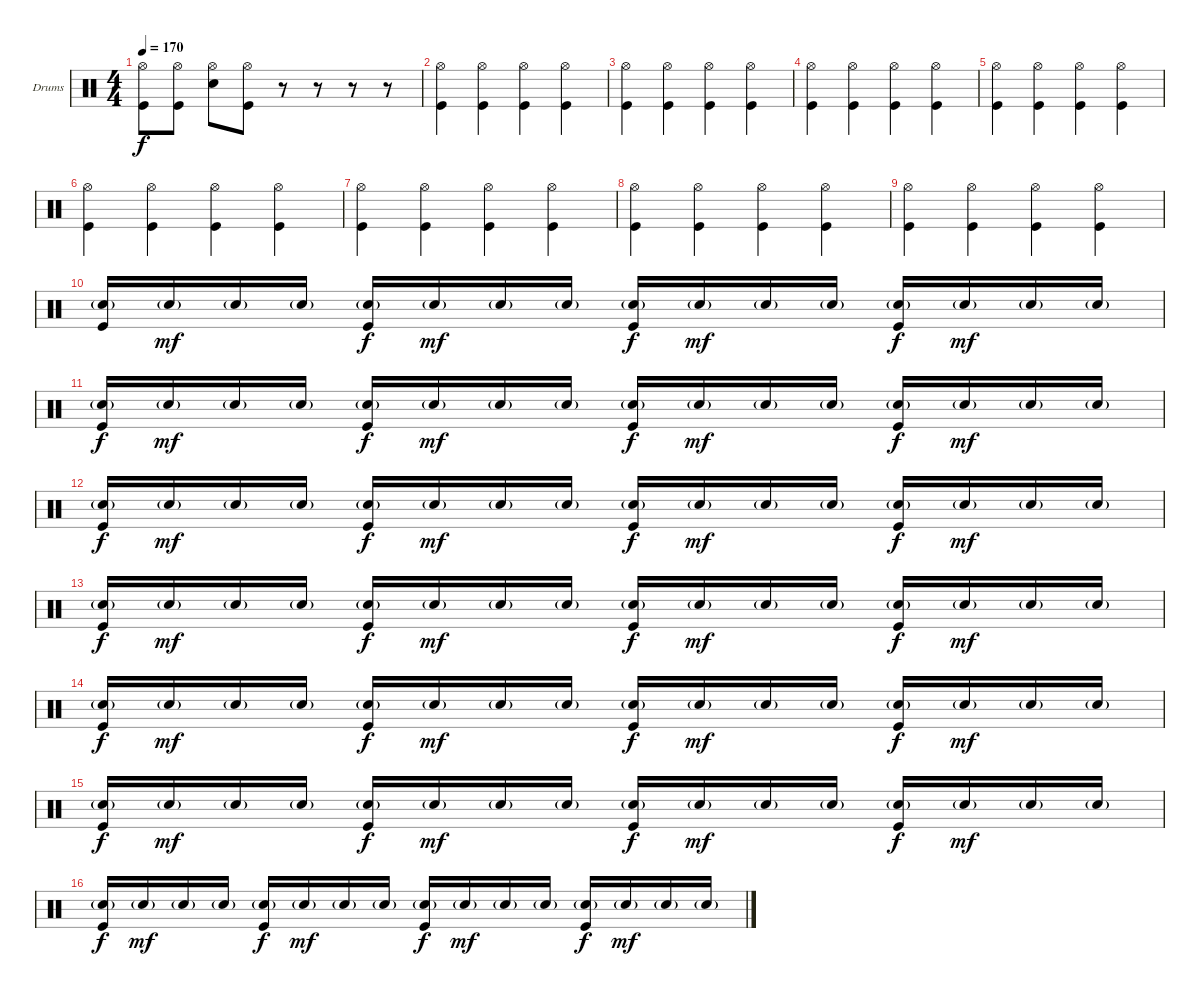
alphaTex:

\defaultSystemsLayout 4
\bracketExtendMode groupsimilarinstruments
\firstSystemTrackNameOrientation horizontal
\otherSystemsTrackNameOrientation horizontal
\track ("Drumkit" "Drums") {instrument percussion}
\staff {score}
\articulation defaults
\ts (4 4)
\tempo 170
\clef neutral
\scale
0.333333
\ks c
("Hi-Hat (open)" "Kick (hit)").8{dy f} ("Hi-Hat (open)" "Kick (hit)").8 ("Hi-Hat (open)" "Snare (hit) 2").8 ("Hi-Hat (open)" "Kick (hit)").8 r.8 r.8 r.8 r.8 |
\scale
0.333333 ("Hi-Hat (open)" "Kick (hit)").4 ("Hi-Hat (open)" "Kick (hit)").4 ("Hi-Hat (open)" "Kick (hit)").4 ("Hi-Hat (open)" "Kick (hit)").4 |
\scale
0.333333 ("Hi-Hat (open)" "Kick (hit)").4 ("Hi-Hat (open)" "Kick (hit)").4 ("Hi-Hat (open)" "Kick (hit)").4 ("Hi-Hat (open)" "Kick (hit)").4 |
\scale
0.333333 ("Hi-Hat (open)" "Kick (hit)").4 ("Hi-Hat (open)" "Kick (hit)").4 ("Hi-Hat (open)" "Kick (hit)").4 ("Hi-Hat (open)" "Kick (hit)").4 |
\scale
0.333333 ("Hi-Hat (open)" "Kick (hit)").4 ("Hi-Hat (open)" "Kick (hit)").4 ("Hi-Hat (open)" "Kick (hit)").4 ("Hi-Hat (open)" "Kick (hit)").4 |
\scale
0.333333 ("Hi-Hat (open)" "Kick (hit)").4 ("Hi-Hat (open)" "Kick (hit)").4 ("Hi-Hat (open)" "Kick (hit)").4 ("Hi-Hat (open)" "Kick (hit)").4 |
\scale
0.333333 ("Hi-Hat (open)" "Kick (hit)").4 ("Hi-Hat (open)" "Kick (hit)").4 ("Hi-Hat (open)" "Kick (hit)").4 ("Hi-Hat (open)" "Kick (hit)").4 |
\scale
0.333333 ("Hi-Hat (open)" "Kick (hit)").4 ("Hi-Hat (open)" "Kick (hit)").4 ("Hi-Hat (open)" "Kick (hit)").4 ("Hi-Hat (open)" "Kick (hit)").4 |
\scale
0.333333 ("Hi-Hat (open)" "Kick (hit)").4 ("Hi-Hat (open)" "Kick (hit)").4 ("Hi-Hat (open)" "Kick (hit)").4 ("Hi-Hat (open)" "Kick (hit)").4 |
\scale
0.333333 ("Snare (hit) 2"{g} "Kick (hit)").16 "Snare (hit) 2"{g}.16{dy mf} "Snare (hit) 2"{g}.16 "Snare (hit) 2"{g}.16 ("Snare (hit) 2"{g} "Kick (hit)").16{dy f} "Snare (hit) 2"{g}.16{dy mf} "Snare (hit) 2"{g}.16 "Snare (hit) 2"{g}.16 ("Snare (hit) 2"{g} "Kick (hit)").16{dy f} "Snare (hit) 2"{g}.16{dy mf} "Snare (hit) 2"{g}.16 "Snare (hit) 2"{g}.16 ("Snare (hit) 2"{g} "Kick (hit)").16{dy f} "Snare (hit) 2"{g}.16{dy mf} "Snare (hit) 2"{g}.16 "Snare (hit) 2"{g}.16 |
\scale
0.333333 ("Snare (hit) 2"{g} "Kick (hit)").16{dy f} "Snare (hit) 2"{g}.16{dy mf} "Snare (hit) 2"{g}.16 "Snare (hit) 2"{g}.16 ("Snare (hit) 2"{g} "Kick (hit)").16{dy f} "Snare (hit) 2"{g}.16{dy mf} "Snare (hit) 2"{g}.16 "Snare (hit) 2"{g}.16 ("Snare (hit) 2"{g} "Kick (hit)").16{dy f} "Snare (hit) 2"{g}.16{dy mf} "Snare (hit) 2"{g}.16 "Snare (hit) 2"{g}.16 ("Snare (hit) 2"{g} "Kick (hit)").16{dy f} "Snare (hit) 2"{g}.16{dy mf} "Snare (hit) 2"{g}.16 "Snare (hit) 2"{g}.16 |
\scale
0.333333 ("Snare (hit) 2"{g} "Kick (hit)").16{dy f} "Snare (hit) 2"{g}.16{dy mf} "Snare (hit) 2"{g}.16 "Snare (hit) 2"{g}.16 ("Snare (hit) 2"{g} "Kick (hit)").16{dy f} "Snare (hit) 2"{g}.16{dy mf} "Snare (hit) 2"{g}.16 "Snare (hit) 2"{g}.16 ("Snare (hit) 2"{g} "Kick (hit)").16{dy f} "Snare (hit) 2"{g}.16{dy mf} "Snare (hit) 2"{g}.16 "Snare (hit) 2"{g}.16 ("Snare (hit) 2"{g} "Kick (hit)").16{dy f} "Snare (hit) 2"{g}.16{dy mf} "Snare (hit) 2"{g}.16 "Snare (hit) 2"{g}.16 |
\scale
0.333333 ("Snare (hit) 2"{g} "Kick (hit)").16{dy f} "Snare (hit) 2"{g}.16{dy mf} "Snare (hit) 2"{g}.16 "Snare (hit) 2"{g}.16 ("Snare (hit) 2"{g} "Kick (hit)").16{dy f} "Snare (hit) 2"{g}.16{dy mf} "Snare (hit) 2"{g}.16 "Snare (hit) 2"{g}.16 ("Snare (hit) 2"{g} "Kick (hit)").16{dy f} "Snare (hit) 2"{g}.16{dy mf} "Snare (hit) 2"{g}.16 "Snare (hit) 2"{g}.16 ("Snare (hit) 2"{g} "Kick (hit)").16{dy f} "Snare (hit) 2"{g}.16{dy mf} "Snare (hit) 2"{g}.16 "Snare (hit) 2"{g}.16 |
\scale
0.333333 ("Snare (hit) 2"{g} "Kick (hit)").16{dy f} "Snare (hit) 2"{g}.16{dy mf} "Snare (hit) 2"{g}.16 "Snare (hit) 2"{g}.16 ("Snare (hit) 2"{g} "Kick (hit)").16{dy f} "Snare (hit) 2"{g}.16{dy mf} "Snare (hit) 2"{g}.16 "Snare (hit) 2"{g}.16 ("Snare (hit) 2"{g} "Kick (hit)").16{dy f} "Snare (hit) 2"{g}.16{dy mf} "Snare (hit) 2"{g}.16 "Snare (hit) 2"{g}.16 ("Snare (hit) 2"{g} "Kick (hit)").16{dy f} "Snare (hit) 2"{g}.16{dy mf} "Snare (hit) 2"{g}.16 "Snare (hit) 2"{g}.16 |
\scale
0.333333 ("Snare (hit) 2"{g} "Kick (hit)").16{dy f} "Snare (hit) 2"{g}.16{dy mf} "Snare (hit) 2"{g}.16 "Snare (hit) 2"{g}.16 ("Snare (hit) 2"{g} "Kick (hit)").16{dy f} "Snare (hit) 2"{g}.16{dy mf} "Snare (hit) 2"{g}.16 "Snare (hit) 2"{g}.16 ("Snare (hit) 2"{g} "Kick (hit)").16{dy f} "Snare (hit) 2"{g}.16{dy mf} "Snare (hit) 2"{g}.16 "Snare (hit) 2"{g}.16 ("Snare (hit) 2"{g} "Kick (hit)").16{dy f} "Snare (hit) 2"{g}.16{dy mf} "Snare (hit) 2"{g}.16 "Snare (hit) 2"{g}.16 |
\scale
0.333333 ("Snare (hit) 2"{g} "Kick (hit)").16{dy f} "Snare (hit) 2"{g}.16{dy mf} "Snare (hit) 2"{g}.16 "Snare (hit) 2"{g}.16 ("Snare (hit) 2"{g} "Kick (hit)").16{dy f} "Snare (hit) 2"{g}.16{dy mf} "Snare (hit) 2"{g}.16 "Snare (hit) 2"{g}.16 ("Snare (hit) 2"{g} "Kick (hit)").16{dy f} "Snare (hit) 2"{g}.16{dy mf} "Snare (hit) 2"{g}.16 "Snare (hit) 2"{g}.16 ("Snare (hit) 2"{g} "Kick (hit)").16{dy f} "Snare (hit) 2"{g}.16{dy mf} "Snare (hit) 2"{g}.16 "Snare (hit) 2"{g}.16
